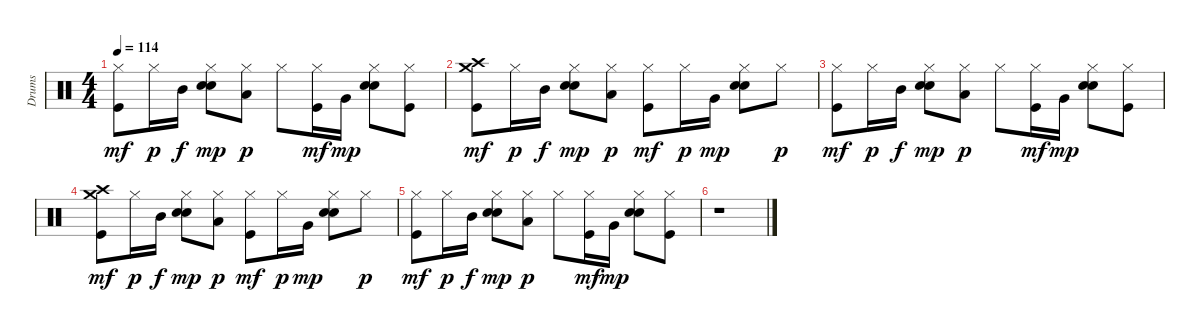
\track ("Drums" "Drums") {instrument percussion}
\staff {score}
\articulation defaults
\ts (4 4)
\tempo 114
\clef neutral
\ks c
("Hi-Hat (closed)" "Kick (hit)").8{dy mf} "Hi-Hat (closed)".16{dy p} "Mid Tom (hit)".16{dy f} ("Hi-Hat (closed)" "Snare (hit) 2" "Electric Snare (hit)").8{dy mp} ("Hi-Hat (closed)" "Low Tom (hit)").8{dy p} "Hi-Hat (closed)".8 ("Hi-Hat (closed)" "Kick (hit)").16{dy mf} "Very Low Tom (hit)".16{dy mp} ("Hi-Hat (closed)" "Snare (hit) 2" "Electric Snare (hit)").8 ("Hi-Hat (closed)" "Kick (hit)").8 |
("Crash medium (hit)" "Crash high (hit)" "Kick (hit)").8{dy mf} "Hi-Hat (closed)".16{dy p} "Mid Tom (hit)".16{dy f} ("Hi-Hat (closed)" "Snare (hit) 2" "Electric Snare (hit)").8{dy mp} ("Hi-Hat (closed)" "Low Tom (hit)").8{dy p} ("Hi-Hat (closed)" "Kick (hit)").8{dy mf} "Hi-Hat (closed)".16{dy p} "Very Low Tom (hit)".16{dy mp} ("Hi-Hat (closed)" "Snare (hit) 2" "Electric Snare (hit)").8 "Hi-Hat (closed)".8{dy p} |
("Hi-Hat (closed)" "Kick (hit)").8{dy mf} "Hi-Hat (closed)".16{dy p} "Mid Tom (hit)".16{dy f} ("Hi-Hat (closed)" "Snare (hit) 2" "Electric Snare (hit)").8{dy mp} ("Hi-Hat (closed)" "Low Tom (hit)").8{dy p} "Hi-Hat (closed)".8 ("Hi-Hat (closed)" "Kick (hit)").16{dy mf} "Very Low Tom (hit)".16{dy mp} ("Hi-Hat (closed)" "Snare (hit) 2" "Electric Snare (hit)").8 ("Hi-Hat (closed)" "Kick (hit)").8 |
("Crash medium (hit)" "Crash high (hit)" "Kick (hit)").8{dy mf} "Hi-Hat (closed)".16{dy p} "Mid Tom (hit)".16{dy f} ("Hi-Hat (closed)" "Snare (hit) 2" "Electric Snare (hit)").8{dy mp} ("Hi-Hat (closed)" "Low Tom (hit)").8{dy p} ("Hi-Hat (closed)" "Kick (hit)").8{dy mf} "Hi-Hat (closed)".16{dy p} "Very Low Tom (hit)".16{dy mp} ("Hi-Hat (closed)" "Snare (hit) 2" "Electric Snare (hit)").8 "Hi-Hat (closed)".8{dy p} |
("Hi-Hat (closed)" "Kick (hit)").8{dy mf} "Hi-Hat (closed)".16{dy p} "Mid Tom (hit)".16{dy f} ("Hi-Hat (closed)" "Snare (hit) 2" "Electric Snare (hit)").8{dy mp} ("Hi-Hat (closed)" "Low Tom (hit)").8{dy p} "Hi-Hat (closed)".8 ("Hi-Hat (closed)" "Kick (hit)").16{dy mf} "Very Low Tom (hit)".16{dy mp} ("Hi-Hat (closed)" "Snare (hit) 2" "Electric Snare (hit)").8 ("Hi-Hat (closed)" "Kick (hit)").8 |
r.1
